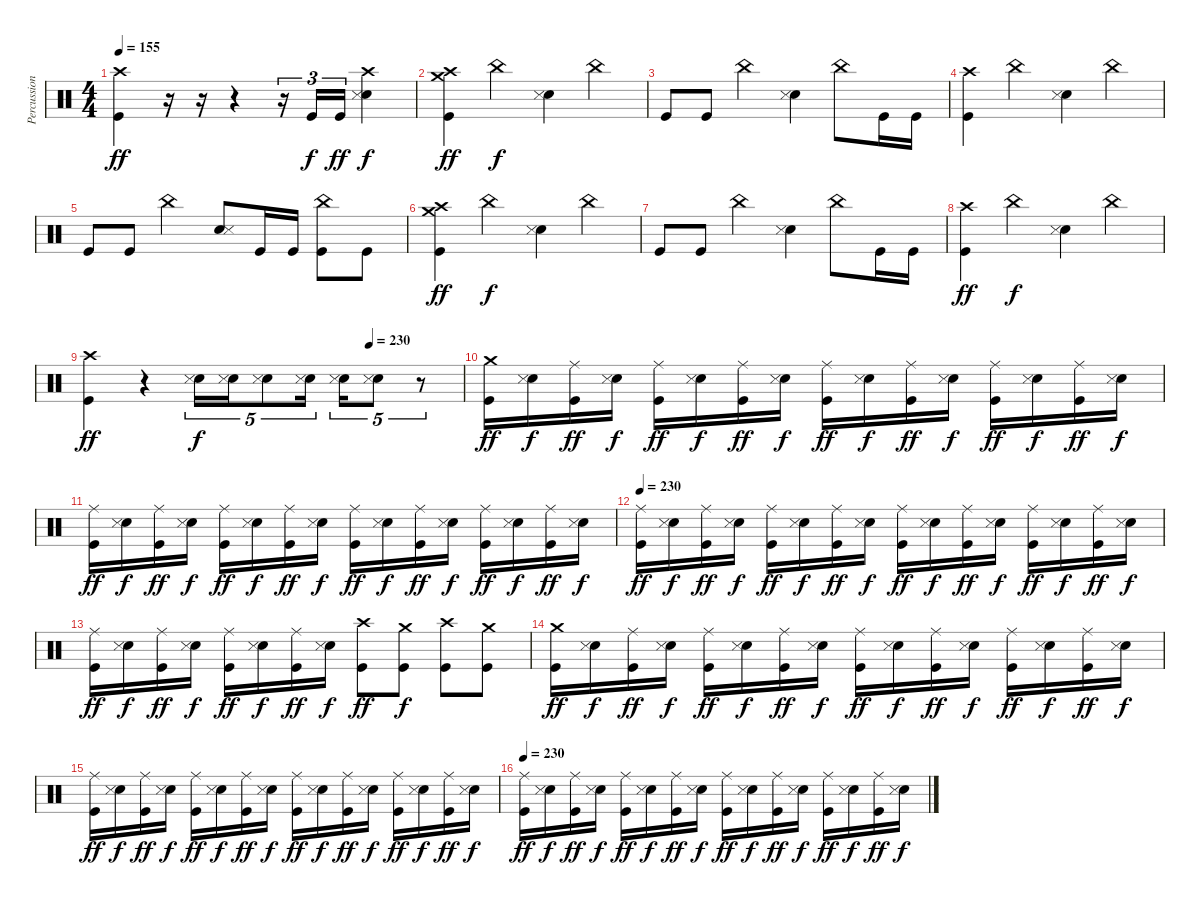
\track ("Percussions" "Percussion") {instrument percussion}
\staff {score}
\articulation defaults
\ts (4 4)
\tempo 155
\clef neutral
\ks c
("Crash high (hit)" "Kick (hit)").4{dy ff} r.16 r.16 r.4 r.16{tu (3 2)} "Kick (hit)".16{tu (3 2) dy f} "Kick (hit)".16{tu (3 2) dy ff} ("Crash high (hit)" "Electric Snare (hit)" "Snare (side stick) 3").4{dy f} |
("Crash high (hit)" "Crash medium (hit)" "Kick (hit)").4{dy ff} "China (hit)".4{dy f} ("Electric Snare (hit)" "Snare (side stick) 3").4 "China (hit)".4 |
"Kick (hit)".8 "Kick (hit)".8 "China (hit)".4 ("Electric Snare (hit)" "Snare (side stick) 3").4 "China (hit)".8 "Kick (hit)".16 "Kick (hit)".16 |
("Crash high (hit)" "Kick (hit)").4 "China (hit)".4 ("Electric Snare (hit)" "Snare (side stick) 3").4 "China (hit)".4 |
"Kick (hit)".8 "Kick (hit)".8 "China (hit)".4 ("Electric Snare (hit)" "Snare (side stick) 3").8 "Kick (hit)".16 "Kick (hit)".16 ("China (hit)" "Kick (hit)").8 "Kick (hit)".8 |
("Crash high (hit)" "Crash medium (hit)" "Kick (hit)").4{dy ff} "China (hit)".4{dy f} ("Electric Snare (hit)" "Snare (side stick) 3").4 "China (hit)".4 |
"Kick (hit)".8 "Kick (hit)".8 "China (hit)".4 ("Electric Snare (hit)" "Snare (side stick) 3").4 "China (hit)".8 "Kick (hit)".16 "Kick (hit)".16 |
("Crash high (hit)" "Kick (hit)").4{dy ff} "China (hit)".4{dy f} ("Electric Snare (hit)" "Snare (side stick) 3").4 "China (hit)".4 |
\tempo (230 0.75)
("Crash high (hit)" "Kick (hit)").4{dy ff} r.4 ("Electric Snare (hit)" "Snare (side stick) 3").16{tu (5 4) dy f} ("Electric Snare (hit)" "Snare (side stick) 3").16{tu (5 4)} ("Electric Snare (hit)" "Snare (side stick) 3").8{tu (5 4)} ("Electric Snare (hit)" "Snare (side stick) 3").16{tu (5 4)} ("Electric Snare (hit)" "Snare (side stick) 3").16{tu (5 4)} ("Electric Snare (hit)" "Snare (side stick) 3").8{tu (5 4)} r.8{tu (5 4)} |
("Crash medium (hit)" "Kick (hit)").16{dy ff} ("Electric Snare (hit)" "Snare (side stick) 3").16{dy f} ("Ride (middle)" "Kick (hit)").16{dy ff} ("Electric Snare (hit)" "Snare (side stick) 3").16{dy f} ("Ride (middle)" "Kick (hit)").16{dy ff} ("Electric Snare (hit)" "Snare (side stick) 3").16{dy f} ("Ride (middle)" "Kick (hit)").16{dy ff} ("Electric Snare (hit)" "Snare (side stick) 3").16{dy f} ("Ride (middle)" "Kick (hit)").16{dy ff} ("Electric Snare (hit)" "Snare (side stick) 3").16{dy f} ("Ride (middle)" "Kick (hit)").16{dy ff} ("Electric Snare (hit)" "Snare (side stick) 3").16{dy f} ("Ride (middle)" "Kick (hit)").16{dy ff} ("Electric Snare (hit)" "Snare (side stick) 3").16{dy f} ("Ride (middle)" "Kick (hit)").16{dy ff} ("Electric Snare (hit)" "Snare (side stick) 3").16{dy f} |
("Ride (middle)" "Kick (hit)").16{dy ff} ("Electric Snare (hit)" "Snare (side stick) 3").16{dy f} ("Ride (middle)" "Kick (hit)").16{dy ff} ("Electric Snare (hit)" "Snare (side stick) 3").16{dy f} ("Ride (middle)" "Kick (hit)").16{dy ff} ("Electric Snare (hit)" "Snare (side stick) 3").16{dy f} ("Ride (middle)" "Kick (hit)").16{dy ff} ("Electric Snare (hit)" "Snare (side stick) 3").16{dy f} ("Ride (middle)" "Kick (hit)").16{dy ff} ("Electric Snare (hit)" "Snare (side stick) 3").16{dy f} ("Ride (middle)" "Kick (hit)").16{dy ff} ("Electric Snare (hit)" "Snare (side stick) 3").16{dy f} ("Ride (middle)" "Kick (hit)").16{dy ff} ("Electric Snare (hit)" "Snare (side stick) 3").16{dy f} ("Ride (middle)" "Kick (hit)").16{dy ff} ("Electric Snare (hit)" "Snare (side stick) 3").16{dy f} |
\tempo 230
("Ride (middle)" "Kick (hit)").16{dy ff} ("Electric Snare (hit)" "Snare (side stick) 3").16{dy f} ("Ride (middle)" "Kick (hit)").16{dy ff} ("Electric Snare (hit)" "Snare (side stick) 3").16{dy f} ("Ride (middle)" "Kick (hit)").16{dy ff} ("Electric Snare (hit)" "Snare (side stick) 3").16{dy f} ("Ride (middle)" "Kick (hit)").16{dy ff} ("Electric Snare (hit)" "Snare (side stick) 3").16{dy f} ("Ride (middle)" "Kick (hit)").16{dy ff} ("Electric Snare (hit)" "Snare (side stick) 3").16{dy f} ("Ride (middle)" "Kick (hit)").16{dy ff} ("Electric Snare (hit)" "Snare (side stick) 3").16{dy f} ("Ride (middle)" "Kick (hit)").16{dy ff} ("Electric Snare (hit)" "Snare (side stick) 3").16{dy f} ("Ride (middle)" "Kick (hit)").16{dy ff} ("Electric Snare (hit)" "Snare (side stick) 3").16{dy f} |
("Ride (middle)" "Kick (hit)").16{dy ff} ("Electric Snare (hit)" "Snare (side stick) 3").16{dy f} ("Ride (middle)" "Kick (hit)").16{dy ff} ("Electric Snare (hit)" "Snare (side stick) 3").16{dy f} ("Ride (middle)" "Kick (hit)").16{dy ff} ("Electric Snare (hit)" "Snare (side stick) 3").16{dy f} ("Ride (middle)" "Kick (hit)").16{dy ff} ("Electric Snare (hit)" "Snare (side stick) 3").16{dy f} ("Crash high (hit)" "Kick (hit)").8{dy ff} ("Crash medium (hit)" "Kick (hit)").8{dy f} ("Crash high (hit)" "Kick (hit)").8 ("Crash medium (hit)" "Kick (hit)").8 |
("Crash medium (hit)" "Kick (hit)").16{dy ff} ("Electric Snare (hit)" "Snare (side stick) 3").16{dy f} ("Ride (middle)" "Kick (hit)").16{dy ff} ("Electric Snare (hit)" "Snare (side stick) 3").16{dy f} ("Ride (middle)" "Kick (hit)").16{dy ff} ("Electric Snare (hit)" "Snare (side stick) 3").16{dy f} ("Ride (middle)" "Kick (hit)").16{dy ff} ("Electric Snare (hit)" "Snare (side stick) 3").16{dy f} ("Ride (middle)" "Kick (hit)").16{dy ff} ("Electric Snare (hit)" "Snare (side stick) 3").16{dy f} ("Ride (middle)" "Kick (hit)").16{dy ff} ("Electric Snare (hit)" "Snare (side stick) 3").16{dy f} ("Ride (middle)" "Kick (hit)").16{dy ff} ("Electric Snare (hit)" "Snare (side stick) 3").16{dy f} ("Ride (middle)" "Kick (hit)").16{dy ff} ("Electric Snare (hit)" "Snare (side stick) 3").16{dy f} |
("Ride (middle)" "Kick (hit)").16{dy ff} ("Electric Snare (hit)" "Snare (side stick) 3").16{dy f} ("Ride (middle)" "Kick (hit)").16{dy ff} ("Electric Snare (hit)" "Snare (side stick) 3").16{dy f} ("Ride (middle)" "Kick (hit)").16{dy ff} ("Electric Snare (hit)" "Snare (side stick) 3").16{dy f} ("Ride (middle)" "Kick (hit)").16{dy ff} ("Electric Snare (hit)" "Snare (side stick) 3").16{dy f} ("Ride (middle)" "Kick (hit)").16{dy ff} ("Electric Snare (hit)" "Snare (side stick) 3").16{dy f} ("Ride (middle)" "Kick (hit)").16{dy ff} ("Electric Snare (hit)" "Snare (side stick) 3").16{dy f} ("Ride (middle)" "Kick (hit)").16{dy ff} ("Electric Snare (hit)" "Snare (side stick) 3").16{dy f} ("Ride (middle)" "Kick (hit)").16{dy ff} ("Electric Snare (hit)" "Snare (side stick) 3").16{dy f} |
\tempo 230
("Ride (middle)" "Kick (hit)").16{dy ff} ("Electric Snare (hit)" "Snare (side stick) 3").16{dy f} ("Ride (middle)" "Kick (hit)").16{dy ff} ("Electric Snare (hit)" "Snare (side stick) 3").16{dy f} ("Ride (middle)" "Kick (hit)").16{dy ff} ("Electric Snare (hit)" "Snare (side stick) 3").16{dy f} ("Ride (middle)" "Kick (hit)").16{dy ff} ("Electric Snare (hit)" "Snare (side stick) 3").16{dy f} ("Ride (middle)" "Kick (hit)").16{dy ff} ("Electric Snare (hit)" "Snare (side stick) 3").16{dy f} ("Ride (middle)" "Kick (hit)").16{dy ff} ("Electric Snare (hit)" "Snare (side stick) 3").16{dy f} ("Ride (middle)" "Kick (hit)").16{dy ff} ("Electric Snare (hit)" "Snare (side stick) 3").16{dy f} ("Ride (middle)" "Kick (hit)").16{dy ff} ("Electric Snare (hit)" "Snare (side stick) 3").16{dy f}
